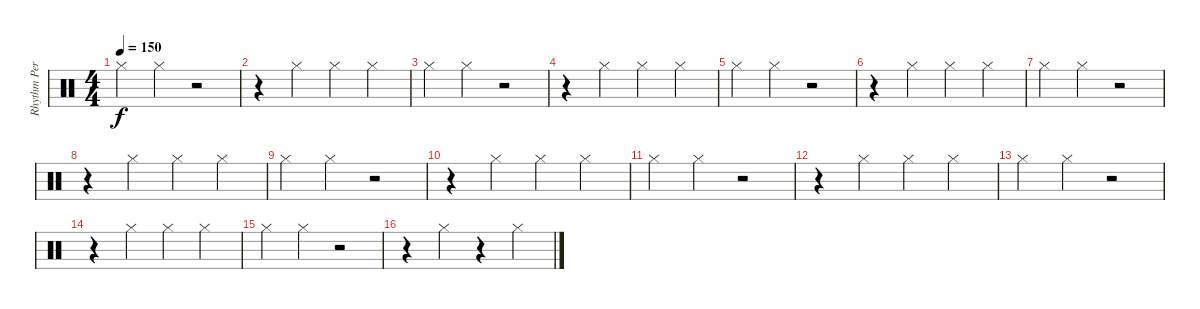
\track ("Rhythm Percussion" "Rhythm Per") {instrument percussion}
\staff {score}
\articulation defaults
\ts (4 4)
\tempo 150
\clef neutral
\ks c "Hi-Hat (closed)".4{dy f} "Hi-Hat (closed)".4
r.2 |
r.4 "Hi-Hat (closed)".4 "Hi-Hat (closed)".4 "Hi-Hat (closed)".4 |
"Hi-Hat (closed)".4 "Hi-Hat (closed)".4 r.2 |
r.4 "Hi-Hat (closed)".4 "Hi-Hat (closed)".4 "Hi-Hat (closed)".4 |
"Hi-Hat (closed)".4 "Hi-Hat (closed)".4 r.2 |
r.4 "Hi-Hat (closed)".4 "Hi-Hat (closed)".4 "Hi-Hat (closed)".4 |
"Hi-Hat (closed)".4 "Hi-Hat (closed)".4 r.2 |
r.4 "Hi-Hat (closed)".4 "Hi-Hat (closed)".4 "Hi-Hat (closed)".4 |
"Hi-Hat (closed)".4 "Hi-Hat (closed)".4 r.2 |
r.4 "Hi-Hat (closed)".4 "Hi-Hat (closed)".4 "Hi-Hat (closed)".4 |
"Hi-Hat (closed)".4 "Hi-Hat (closed)".4 r.2 |
r.4 "Hi-Hat (closed)".4 "Hi-Hat (closed)".4 "Hi-Hat (closed)".4 |
"Hi-Hat (closed)".4 "Hi-Hat (closed)".4 r.2 |
r.4 "Hi-Hat (closed)".4 "Hi-Hat (closed)".4 "Hi-Hat (closed)".4 |
"Hi-Hat (closed)".4 "Hi-Hat (closed)".4 r.2 |
r.4 "Hi-Hat (closed)".4 r.4 "Hi-Hat (closed)".4
